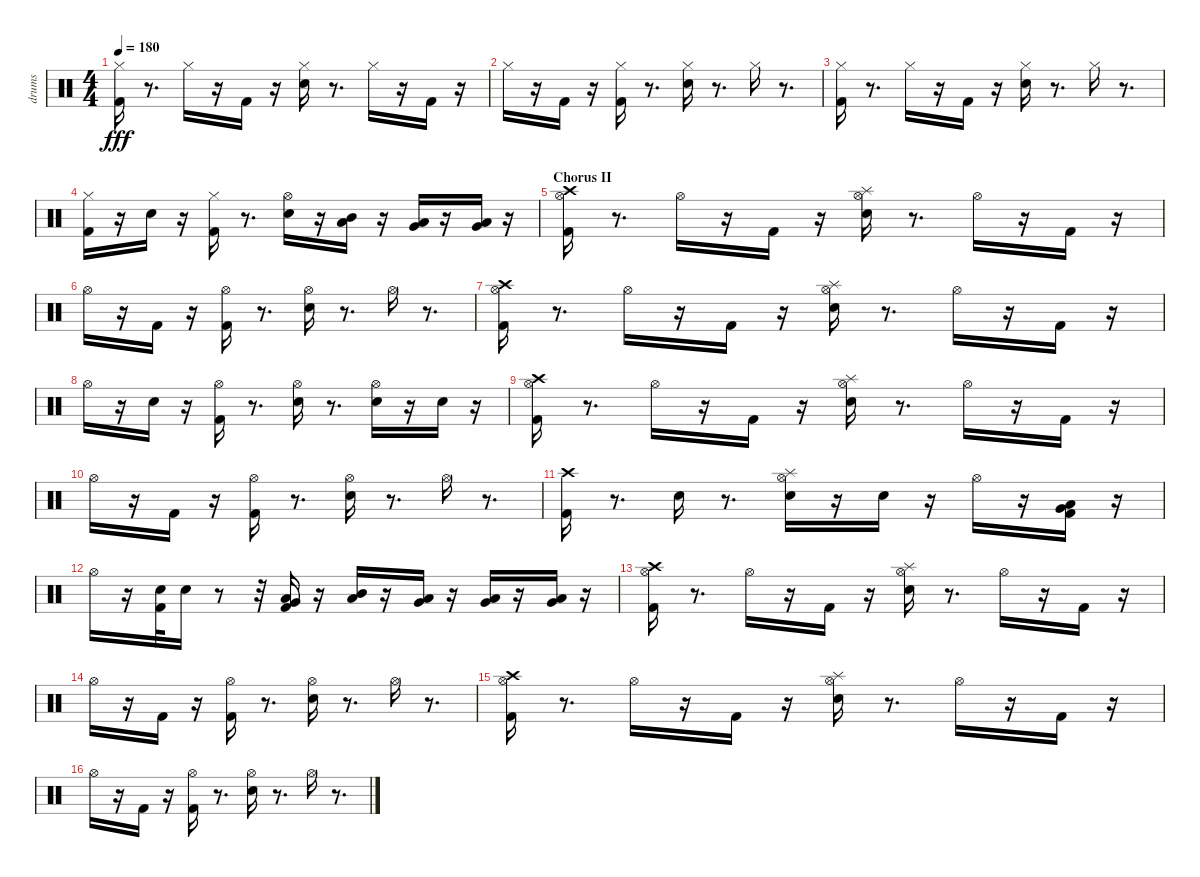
\track ("drums" "drums") {instrument percussion}
\staff {score}
\articulation defaults
\ts (4 4)
\tempo 180
\clef neutral
\ks c
("Kick (hit) 2" "Hi-Hat (closed)").16{dy fff} r.8{d} "Hi-Hat (closed)".16 r.16 "Kick (hit) 2".16 r.16 ("Electric Snare (hit)" "Hi-Hat (closed)").16 r.8{d} "Hi-Hat (closed)".16 r.16 "Kick (hit) 2".16 r.16 |
"Hi-Hat (closed)".16 r.16 "Kick (hit) 2".16 r.16 ("Hi-Hat (closed)" "Kick (hit) 2").16 r.8{d} ("Hi-Hat (closed)" "Electric Snare (hit)").16 r.8{d} "Hi-Hat (closed)".16 r.8{d} |
("Kick (hit) 2" "Hi-Hat (closed)").16 r.8{d} "Hi-Hat (closed)".16 r.16 "Kick (hit) 2".16 r.16 ("Electric Snare (hit)" "Hi-Hat (closed)").16 r.8{d} "Hi-Hat (closed)".16 r.8{d} |
("Hi-Hat (closed)" "Kick (hit) 2").16 r.16 "Electric Snare (hit)".16 r.16 ("Kick (hit) 2" "Hi-Hat (closed)").16 r.8{d} ("Hi-Hat (open)" "Electric Snare (hit)").16 r.16 ("Mid Tom (hit)" "Low Tom (hit)").16 r.16 ("Low Tom (hit)" "Very Low Tom (hit)").16 r.16 ("Very Low Tom (hit)" "Low Floor Tom (hit)").16 r.16 |
\section ("" "Chorus II")
("Crash high (hit)" "Kick (hit) 2" "Hi-Hat (open)").16 r.8{d} "Hi-Hat (open)".16 r.16 "Kick (hit) 2".16 r.16 ("Electric Snare (hit)" "Hi-Hat (open)" "Splash (hit)").16 r.8{d} "Hi-Hat (open)".16 r.16 "Kick (hit) 2".16 r.16 |
"Hi-Hat (open)".16 r.16 "Kick (hit) 2".16 r.16 ("Hi-Hat (open)" "Kick (hit) 2").16 r.8{d} ("Hi-Hat (open)" "Electric Snare (hit)").16 r.8{d} "Hi-Hat (open)".16 r.8{d} |
("Crash high (hit)" "Kick (hit) 2" "Hi-Hat (open)").16 r.8{d} "Hi-Hat (open)".16 r.16 "Kick (hit) 2".16 r.16 ("Splash (hit)" "Electric Snare (hit)" "Hi-Hat (open)").16 r.8{d} "Hi-Hat (open)".16 r.16 "Kick (hit) 2".16 r.16 |
"Hi-Hat (open)".16 r.16 "Electric Snare (hit)".16 r.16 ("Hi-Hat (open)" "Kick (hit) 2").16 r.8{d} ("Hi-Hat (open)" "Electric Snare (hit)").16 r.8{d} ("Hi-Hat (open)" "Electric Snare (hit)").16 r.16 "Electric Snare (hit)".16 r.16 |
("Crash high (hit)" "Kick (hit) 2" "Hi-Hat (open)").16 r.8{d} "Hi-Hat (open)".16 r.16 "Kick (hit) 2".16 r.16 ("Splash (hit)" "Electric Snare (hit)" "Hi-Hat (open)").16 r.8{d} "Hi-Hat (open)".16 r.16 "Kick (hit) 2".16 r.16 |
"Hi-Hat (open)".16 r.16 "Kick (hit) 2".16 r.16 ("Hi-Hat (open)" "Kick (hit) 2").16 r.8{d} ("Hi-Hat (open)" "Electric Snare (hit)").16 r.8{d} "Hi-Hat (open)".16 r.8{d} |
("Crash high (hit)" "Kick (hit) 2").16 r.8{d} "Electric Snare (hit)".16 r.8{d} ("Splash (hit)" "Hi-Hat (open)" "Electric Snare (hit)").16 r.16 "Electric Snare (hit)".16 r.16 "Hi-Hat (open)".16 r.16 ("Very Low Tom (hit)" "Low Floor Tom (hit)" "Kick (hit) 2").16 r.16 |
"Hi-Hat (open)".16 r.16 ("Electric Snare (hit)" "Kick (hit) 2").32 "Electric Snare (hit)".16 r.8 r.32 ("Low Tom (hit)" "Very Low Tom (hit)" "Kick (hit) 2").16 r.16 ("Low Tom (hit)" "Mid Tom (hit)").16 r.16 ("Very Low Tom (hit)" "Low Tom (hit)").16 r.16 ("Low Tom (hit)" "Very Low Tom (hit)").16 r.16 ("Very Low Tom (hit)" "Low Floor Tom (hit)").16 r.16 |
("Crash high (hit)" "Kick (hit) 2" "Hi-Hat (open)").16 r.8{d} "Hi-Hat (open)".16 r.16 "Kick (hit) 2".16 r.16 ("Splash (hit)" "Electric Snare (hit)" "Hi-Hat (open)").16 r.8{d} "Hi-Hat (open)".16 r.16 "Kick (hit) 2".16 r.16 |
"Hi-Hat (open)".16 r.16 "Kick (hit) 2".16 r.16 ("Hi-Hat (open)" "Kick (hit) 2").16 r.8{d} ("Hi-Hat (open)" "Electric Snare (hit)").16 r.8{d} "Hi-Hat (open)".16 r.8{d} |
("Crash high (hit)" "Kick (hit) 2" "Hi-Hat (open)").16 r.8{d} "Hi-Hat (open)".16 r.16 "Kick (hit) 2".16 r.16 ("Splash (hit)" "Electric Snare (hit)" "Hi-Hat (open)").16 r.8{d} "Hi-Hat (open)".16 r.16 "Kick (hit) 2".16 r.16 |
"Hi-Hat (open)".16 r.16 "Kick (hit) 2".16 r.16 ("Hi-Hat (open)" "Kick (hit) 2").16 r.8{d} ("Hi-Hat (open)" "Electric Snare (hit)").16 r.8{d} "Hi-Hat (open)".16 r.8{d}
